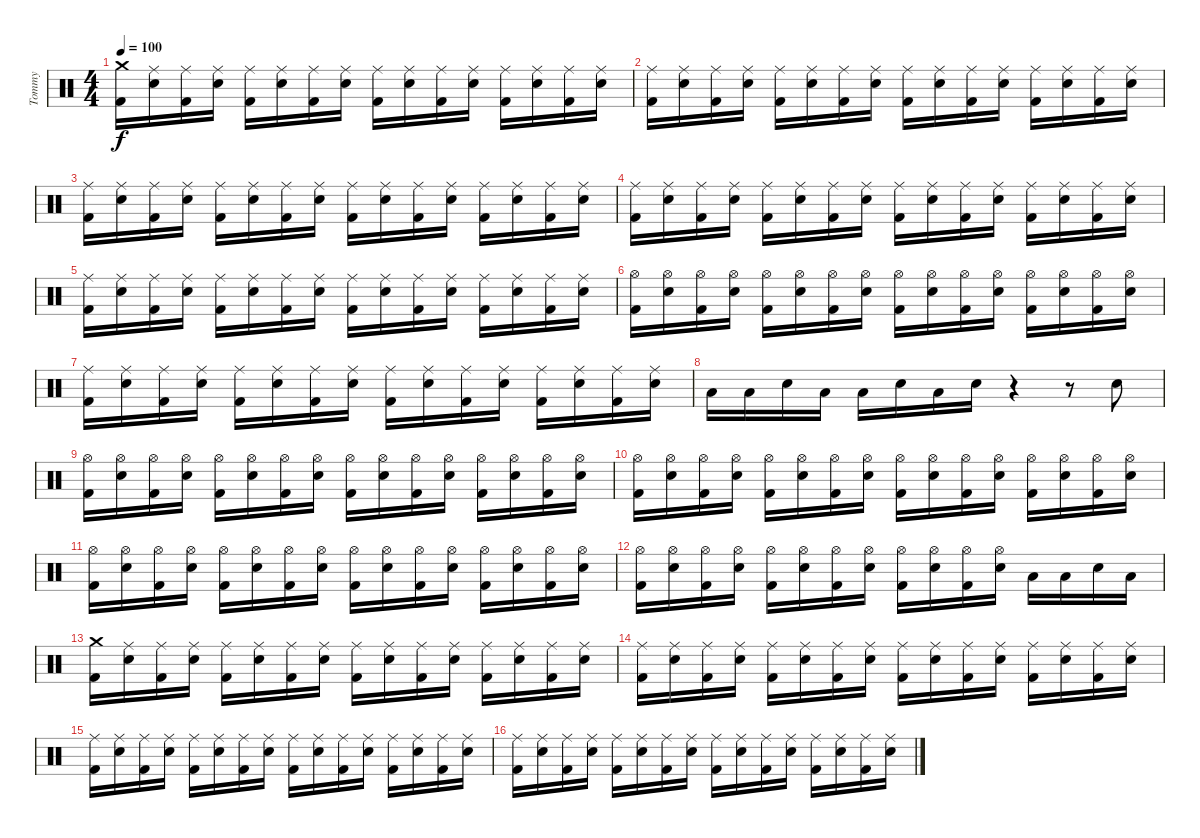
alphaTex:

\track ("Tommy" "Tommy") {instrument percussion}
\staff {score}
\articulation defaults
\ts (4 4)
\tempo 100
\clef neutral
\ks c
("Crash medium (hit)" "Kick (hit) 2").16{dy f} ("Ride (middle)" "Snare (hit) 2").16 ("Ride (middle)" "Kick (hit) 2").16 ("Ride (middle)" "Snare (hit) 2").16 ("Ride (middle)" "Kick (hit) 2").16 ("Ride (middle)" "Snare (hit) 2").16 ("Ride (middle)" "Kick (hit) 2").16 ("Ride (middle)" "Snare (hit) 2").16 ("Ride (middle)" "Kick (hit) 2").16 ("Ride (middle)" "Snare (hit) 2").16 ("Ride (middle)" "Kick (hit) 2").16 ("Ride (middle)" "Snare (hit) 2").16 ("Ride (middle)" "Kick (hit) 2").16 ("Ride (middle)" "Snare (hit) 2").16 ("Ride (middle)" "Kick (hit) 2").16 ("Ride (middle)" "Snare (hit) 2").16 |
("Ride (middle)" "Kick (hit) 2").16 ("Ride (middle)" "Snare (hit) 2").16 ("Ride (middle)" "Kick (hit) 2").16 ("Ride (middle)" "Snare (hit) 2").16 ("Ride (middle)" "Kick (hit) 2").16 ("Ride (middle)" "Snare (hit) 2").16 ("Ride (middle)" "Kick (hit) 2").16 ("Ride (middle)" "Snare (hit) 2").16 ("Ride (middle)" "Kick (hit) 2").16 ("Ride (middle)" "Snare (hit) 2").16 ("Ride (middle)" "Kick (hit) 2").16 ("Ride (middle)" "Snare (hit) 2").16 ("Ride (middle)" "Kick (hit) 2").16 ("Ride (middle)" "Snare (hit) 2").16 ("Ride (middle)" "Kick (hit) 2").16 ("Ride (middle)" "Snare (hit) 2").16 |
("Ride (middle)" "Kick (hit) 2").16 ("Ride (middle)" "Snare (hit) 2").16 ("Ride (middle)" "Kick (hit) 2").16 ("Ride (middle)" "Snare (hit) 2").16 ("Ride (middle)" "Kick (hit) 2").16 ("Ride (middle)" "Snare (hit) 2").16 ("Ride (middle)" "Kick (hit) 2").16 ("Ride (middle)" "Snare (hit) 2").16 ("Ride (middle)" "Kick (hit) 2").16 ("Ride (middle)" "Snare (hit) 2").16 ("Ride (middle)" "Kick (hit) 2").16 ("Ride (middle)" "Snare (hit) 2").16 ("Ride (middle)" "Kick (hit) 2").16 ("Ride (middle)" "Snare (hit) 2").16 ("Ride (middle)" "Kick (hit) 2").16 ("Ride (middle)" "Snare (hit) 2").16 |
("Ride (middle)" "Kick (hit) 2").16 ("Ride (middle)" "Snare (hit) 2").16 ("Ride (middle)" "Kick (hit) 2").16 ("Ride (middle)" "Snare (hit) 2").16 ("Ride (middle)" "Kick (hit) 2").16 ("Ride (middle)" "Snare (hit) 2").16 ("Ride (middle)" "Kick (hit) 2").16 ("Ride (middle)" "Snare (hit) 2").16 ("Ride (middle)" "Kick (hit) 2").16 ("Ride (middle)" "Snare (hit) 2").16 ("Ride (middle)" "Kick (hit) 2").16 ("Ride (middle)" "Snare (hit) 2").16 ("Ride (middle)" "Kick (hit) 2").16 ("Ride (middle)" "Snare (hit) 2").16 ("Ride (middle)" "Kick (hit) 2").16 ("Ride (middle)" "Snare (hit) 2").16 |
("Ride (middle)" "Kick (hit) 2").16 ("Ride (middle)" "Snare (hit) 2").16 ("Ride (middle)" "Kick (hit) 2").16 ("Ride (middle)" "Snare (hit) 2").16 ("Ride (middle)" "Kick (hit) 2").16 ("Ride (middle)" "Snare (hit) 2").16 ("Ride (middle)" "Kick (hit) 2").16 ("Ride (middle)" "Snare (hit) 2").16 ("Ride (middle)" "Kick (hit) 2").16 ("Ride (middle)" "Snare (hit) 2").16 ("Ride (middle)" "Kick (hit) 2").16 ("Ride (middle)" "Snare (hit) 2").16 ("Ride (middle)" "Kick (hit) 2").16 ("Ride (middle)" "Snare (hit) 2").16 ("Ride (middle)" "Kick (hit) 2").16 ("Ride (middle)" "Snare (hit) 2").16 |
("Hi-Hat (open)" "Kick (hit) 2").16 ("Hi-Hat (open)" "Snare (hit) 2").16 ("Hi-Hat (open)" "Kick (hit) 2").16 ("Hi-Hat (open)" "Snare (hit) 2").16 ("Hi-Hat (open)" "Kick (hit) 2").16 ("Hi-Hat (open)" "Snare (hit) 2").16 ("Hi-Hat (open)" "Kick (hit) 2").16 ("Hi-Hat (open)" "Snare (hit) 2").16 ("Hi-Hat (open)" "Kick (hit) 2").16 ("Hi-Hat (open)" "Snare (hit) 2").16 ("Hi-Hat (open)" "Kick (hit) 2").16 ("Hi-Hat (open)" "Snare (hit) 2").16 ("Hi-Hat (open)" "Kick (hit) 2").16 ("Hi-Hat (open)" "Snare (hit) 2").16 ("Hi-Hat (open)" "Kick (hit) 2").16 ("Hi-Hat (open)" "Snare (hit) 2").16 |
("Ride (middle)" "Kick (hit) 2").16 ("Ride (middle)" "Snare (hit) 2").16 ("Ride (middle)" "Kick (hit) 2").16 ("Ride (middle)" "Snare (hit) 2").16 ("Ride (middle)" "Kick (hit) 2").16 ("Ride (middle)" "Snare (hit) 2").16 ("Ride (middle)" "Kick (hit) 2").16 ("Ride (middle)" "Snare (hit) 2").16 ("Ride (middle)" "Kick (hit) 2").16 ("Ride (middle)" "Snare (hit) 2").16 ("Ride (middle)" "Kick (hit) 2").16 ("Ride (middle)" "Snare (hit) 2").16 ("Ride (middle)" "Kick (hit) 2").16 ("Ride (middle)" "Snare (hit) 2").16 ("Ride (middle)" "Kick (hit) 2").16 ("Ride (middle)" "Snare (hit) 2").16 |
"Low Tom (hit)".16 "Low Tom (hit)".16 "Snare (hit) 2".16 "Low Tom (hit)".16 "Low Tom (hit)".16 "Snare (hit) 2".16 "Low Tom (hit)".16 "Snare (hit) 2".16 r.4 r.8 "Snare (hit) 2".8 |
("Hi-Hat (open)" "Kick (hit) 2").16 ("Hi-Hat (open)" "Snare (hit) 2").16 ("Hi-Hat (open)" "Kick (hit) 2").16 ("Hi-Hat (open)" "Snare (hit) 2").16 ("Hi-Hat (open)" "Kick (hit) 2").16 ("Hi-Hat (open)" "Snare (hit) 2").16 ("Hi-Hat (open)" "Kick (hit) 2").16 ("Hi-Hat (open)" "Snare (hit) 2").16 ("Hi-Hat (open)" "Kick (hit) 2").16 ("Hi-Hat (open)" "Snare (hit) 2").16 ("Hi-Hat (open)" "Kick (hit) 2").16 ("Hi-Hat (open)" "Snare (hit) 2").16 ("Hi-Hat (open)" "Kick (hit) 2").16 ("Hi-Hat (open)" "Snare (hit) 2").16 ("Hi-Hat (open)" "Kick (hit) 2").16 ("Hi-Hat (open)" "Snare (hit) 2").16 |
("Hi-Hat (open)" "Kick (hit) 2").16 ("Hi-Hat (open)" "Snare (hit) 2").16 ("Hi-Hat (open)" "Kick (hit) 2").16 ("Hi-Hat (open)" "Snare (hit) 2").16 ("Hi-Hat (open)" "Kick (hit) 2").16 ("Hi-Hat (open)" "Snare (hit) 2").16 ("Hi-Hat (open)" "Kick (hit) 2").16 ("Hi-Hat (open)" "Snare (hit) 2").16 ("Hi-Hat (open)" "Kick (hit) 2").16 ("Hi-Hat (open)" "Snare (hit) 2").16 ("Hi-Hat (open)" "Kick (hit) 2").16 ("Hi-Hat (open)" "Snare (hit) 2").16 ("Hi-Hat (open)" "Kick (hit) 2").16 ("Hi-Hat (open)" "Snare (hit) 2").16 ("Hi-Hat (open)" "Kick (hit) 2").16 ("Hi-Hat (open)" "Snare (hit) 2").16 |
("Hi-Hat (open)" "Kick (hit) 2").16 ("Hi-Hat (open)" "Snare (hit) 2").16 ("Hi-Hat (open)" "Kick (hit) 2").16 ("Hi-Hat (open)" "Snare (hit) 2").16 ("Hi-Hat (open)" "Kick (hit) 2").16 ("Hi-Hat (open)" "Snare (hit) 2").16 ("Hi-Hat (open)" "Kick (hit) 2").16 ("Hi-Hat (open)" "Snare (hit) 2").16 ("Hi-Hat (open)" "Kick (hit) 2").16 ("Hi-Hat (open)" "Snare (hit) 2").16 ("Hi-Hat (open)" "Kick (hit) 2").16 ("Hi-Hat (open)" "Snare (hit) 2").16 ("Hi-Hat (open)" "Kick (hit) 2").16 ("Hi-Hat (open)" "Snare (hit) 2").16 ("Hi-Hat (open)" "Kick (hit) 2").16 ("Hi-Hat (open)" "Snare (hit) 2").16 |
("Hi-Hat (open)" "Kick (hit) 2").16 ("Hi-Hat (open)" "Snare (hit) 2").16 ("Hi-Hat (open)" "Kick (hit) 2").16 ("Hi-Hat (open)" "Snare (hit) 2").16 ("Hi-Hat (open)" "Kick (hit) 2").16 ("Hi-Hat (open)" "Snare (hit) 2").16 ("Hi-Hat (open)" "Kick (hit) 2").16 ("Hi-Hat (open)" "Snare (hit) 2").16 ("Hi-Hat (open)" "Kick (hit) 2").16 ("Hi-Hat (open)" "Snare (hit) 2").16 ("Hi-Hat (open)" "Kick (hit) 2").16 ("Hi-Hat (open)" "Snare (hit) 2").16 "Low Tom (hit)".16 "Low Tom (hit)".16 "Snare (hit) 2".16 "Low Tom (hit)".16 |
("Crash medium (hit)" "Kick (hit) 2").16 ("Ride (middle)" "Snare (hit) 2").16 ("Ride (middle)" "Kick (hit) 2").16 ("Ride (middle)" "Snare (hit) 2").16 ("Ride (middle)" "Kick (hit) 2").16 ("Ride (middle)" "Snare (hit) 2").16 ("Ride (middle)" "Kick (hit) 2").16 ("Ride (middle)" "Snare (hit) 2").16 ("Ride (middle)" "Kick (hit) 2").16 ("Ride (middle)" "Snare (hit) 2").16 ("Ride (middle)" "Kick (hit) 2").16 ("Ride (middle)" "Snare (hit) 2").16 ("Ride (middle)" "Kick (hit) 2").16 ("Ride (middle)" "Snare (hit) 2").16 ("Ride (middle)" "Kick (hit) 2").16 ("Ride (middle)" "Snare (hit) 2").16 |
("Ride (middle)" "Kick (hit) 2").16 ("Ride (middle)" "Snare (hit) 2").16 ("Ride (middle)" "Kick (hit) 2").16 ("Ride (middle)" "Snare (hit) 2").16 ("Ride (middle)" "Kick (hit) 2").16 ("Ride (middle)" "Snare (hit) 2").16 ("Ride (middle)" "Kick (hit) 2").16 ("Ride (middle)" "Snare (hit) 2").16 ("Ride (middle)" "Kick (hit) 2").16 ("Ride (middle)" "Snare (hit) 2").16 ("Ride (middle)" "Kick (hit) 2").16 ("Ride (middle)" "Snare (hit) 2").16 ("Ride (middle)" "Kick (hit) 2").16 ("Ride (middle)" "Snare (hit) 2").16 ("Ride (middle)" "Kick (hit) 2").16 ("Ride (middle)" "Snare (hit) 2").16 |
("Ride (middle)" "Kick (hit) 2").16 ("Ride (middle)" "Snare (hit) 2").16 ("Ride (middle)" "Kick (hit) 2").16 ("Ride (middle)" "Snare (hit) 2").16 ("Ride (middle)" "Kick (hit) 2").16 ("Ride (middle)" "Snare (hit) 2").16 ("Ride (middle)" "Kick (hit) 2").16 ("Ride (middle)" "Snare (hit) 2").16 ("Ride (middle)" "Kick (hit) 2").16 ("Ride (middle)" "Snare (hit) 2").16 ("Ride (middle)" "Kick (hit) 2").16 ("Ride (middle)" "Snare (hit) 2").16 ("Ride (middle)" "Kick (hit) 2").16 ("Ride (middle)" "Snare (hit) 2").16 ("Ride (middle)" "Kick (hit) 2").16 ("Ride (middle)" "Snare (hit) 2").16 |
("Ride (middle)" "Kick (hit) 2").16 ("Ride (middle)" "Snare (hit) 2").16 ("Ride (middle)" "Kick (hit) 2").16 ("Ride (middle)" "Snare (hit) 2").16 ("Ride (middle)" "Kick (hit) 2").16 ("Ride (middle)" "Snare (hit) 2").16 ("Ride (middle)" "Kick (hit) 2").16 ("Ride (middle)" "Snare (hit) 2").16 ("Ride (middle)" "Kick (hit) 2").16 ("Ride (middle)" "Snare (hit) 2").16 ("Ride (middle)" "Kick (hit) 2").16 ("Ride (middle)" "Snare (hit) 2").16 ("Ride (middle)" "Kick (hit) 2").16 ("Ride (middle)" "Snare (hit) 2").16 ("Ride (middle)" "Kick (hit) 2").16 ("Ride (middle)" "Snare (hit) 2").16
